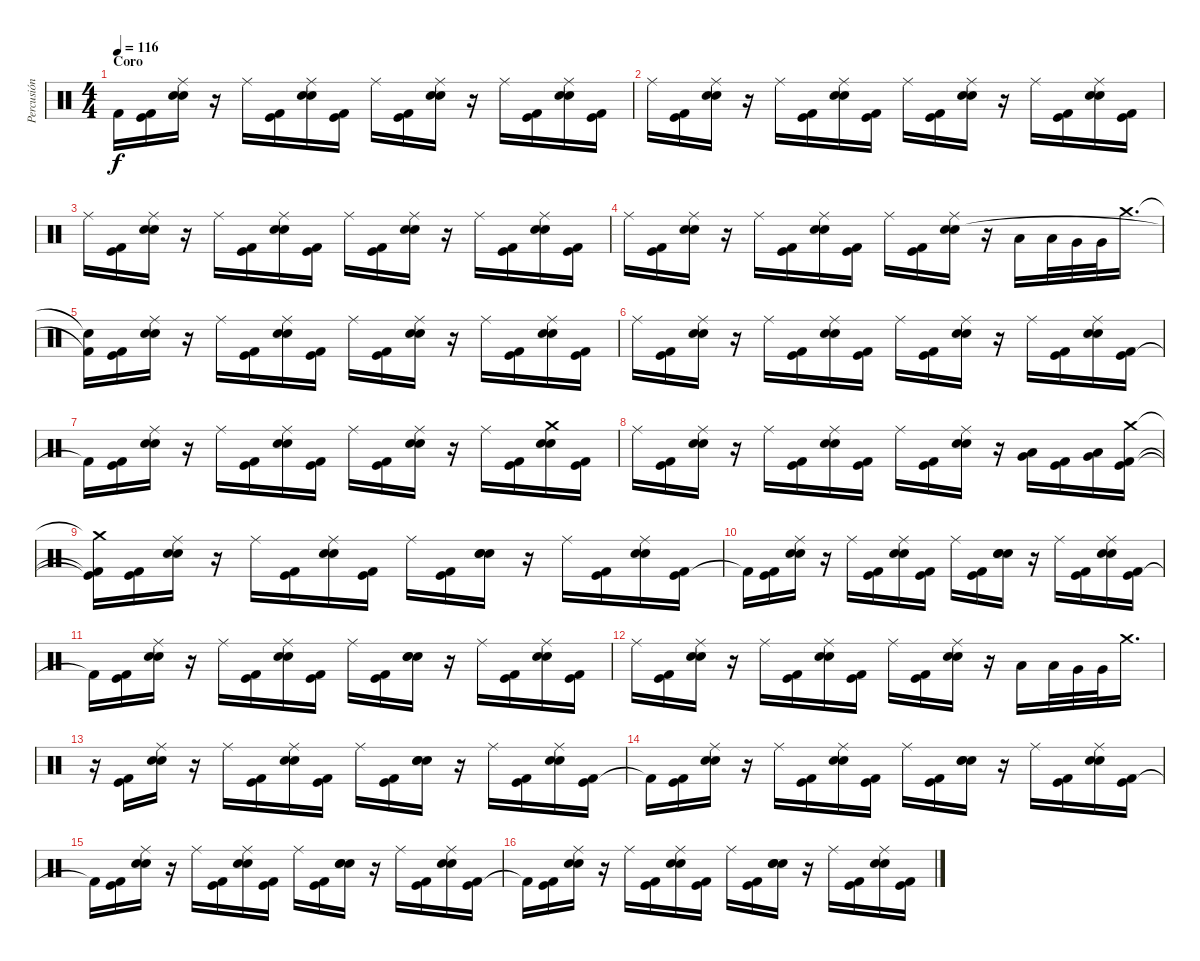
\track ("Percusión" "Percusión") {instrument percussion}
\staff {score}
\articulation defaults
\ts (4 4)
\section ("" "Coro")
\tempo 116
\clef neutral
\ks c "Kick (hit) 2"{t}.16{dy f}
("Kick (hit)" "Kick (hit) 2").16 ("Ride (middle)" "Electric Snare (hit)" "Snare (hit) 2").16 r.16 "Ride (middle)".16 ("Kick (hit)" "Kick (hit) 2").16 ("Ride (middle)" "Electric Snare (hit)" "Snare (hit) 2").16 ("Kick (hit)" "Kick (hit) 2").16 "Ride (middle)".16 ("Kick (hit)" "Kick (hit) 2").16 ("Ride (middle)" "Electric Snare (hit)" "Snare (hit) 2").16 r.16 "Ride (middle)".16 ("Kick (hit)" "Kick (hit) 2").16 ("Ride (middle)" "Electric Snare (hit)" "Snare (hit) 2").16 ("Kick (hit)" "Kick (hit) 2").16 |
"Ride (middle)".16 ("Kick (hit)" "Kick (hit) 2").16 ("Ride (middle)" "Electric Snare (hit)" "Snare (hit) 2").16 r.16 "Ride (middle)".16 ("Kick (hit)" "Kick (hit) 2").16 ("Ride (middle)" "Electric Snare (hit)" "Snare (hit) 2").16 ("Kick (hit)" "Kick (hit) 2").16 "Ride (middle)".16 ("Kick (hit)" "Kick (hit) 2").16 ("Ride (middle)" "Electric Snare (hit)" "Snare (hit) 2").16 r.16 "Ride (middle)".16 ("Kick (hit)" "Kick (hit) 2").16 ("Ride (middle)" "Electric Snare (hit)" "Snare (hit) 2").16 ("Kick (hit)" "Kick (hit) 2").16 |
"Ride (middle)".16 ("Kick (hit)" "Kick (hit) 2").16 ("Ride (middle)" "Electric Snare (hit)" "Snare (hit) 2").16 r.16 "Ride (middle)".16 ("Kick (hit)" "Kick (hit) 2").16 ("Ride (middle)" "Electric Snare (hit)" "Snare (hit) 2").16 ("Kick (hit)" "Kick (hit) 2").16 "Ride (middle)".16 ("Kick (hit)" "Kick (hit) 2").16 ("Ride (middle)" "Electric Snare (hit)" "Snare (hit) 2").16 r.16 "Ride (middle)".16 ("Kick (hit)" "Kick (hit) 2").16 ("Ride (middle)" "Electric Snare (hit)" "Snare (hit) 2").16 ("Kick (hit)" "Kick (hit) 2").16 |
"Ride (middle)".16 ("Kick (hit)" "Kick (hit) 2").16 ("Ride (middle)" "Electric Snare (hit)" "Snare (hit) 2").16 r.16 "Ride (middle)".16 ("Kick (hit)" "Kick (hit) 2").16 ("Ride (middle)" "Electric Snare (hit)" "Snare (hit) 2").16 ("Kick (hit)" "Kick (hit) 2").16 "Ride (middle)".16 ("Kick (hit)" "Kick (hit) 2").16 ("Ride (middle)" "Electric Snare (hit)" "Snare (hit) 2").16 r.16 "Low Tom (hit)".16 "Low Tom (hit)".32 "Very Low Tom (hit)".32 "Very Low Tom (hit)".32 "Crash medium (hit)".16{d} |
("Snare (hit)"{t} "Kick (hit) 2"{t}).16 ("Kick (hit)" "Kick (hit) 2").16 ("Ride (middle)" "Electric Snare (hit)" "Snare (hit) 2").16 r.16 "Ride (middle)".16 ("Kick (hit)" "Kick (hit) 2").16 ("Ride (middle)" "Electric Snare (hit)" "Snare (hit) 2").16 ("Kick (hit)" "Kick (hit) 2").16 "Ride (middle)".16 ("Kick (hit)" "Kick (hit) 2").16 ("Ride (middle)" "Electric Snare (hit)" "Snare (hit) 2").16 r.16 "Ride (middle)".16 ("Kick (hit)" "Kick (hit) 2").16 ("Ride (middle)" "Electric Snare (hit)" "Snare (hit) 2").16 ("Kick (hit)" "Kick (hit) 2").16 |
"Ride (middle)".16 ("Kick (hit)" "Kick (hit) 2").16 ("Ride (middle)" "Electric Snare (hit)" "Snare (hit) 2").16 r.16 "Ride (middle)".16 ("Kick (hit)" "Kick (hit) 2").16 ("Ride (middle)" "Electric Snare (hit)" "Snare (hit) 2").16 ("Kick (hit)" "Kick (hit) 2").16 "Ride (middle)".16 ("Kick (hit)" "Kick (hit) 2").16 ("Ride (middle)" "Electric Snare (hit)" "Snare (hit) 2").16 r.16 "Ride (middle)".16 ("Kick (hit)" "Kick (hit) 2").16 ("Ride (middle)" "Electric Snare (hit)" "Snare (hit) 2").16 ("Kick (hit)" "Kick (hit) 2").16 |
"Kick (hit) 2"{t}.16 ("Kick (hit)" "Kick (hit) 2").16 ("Ride (middle)" "Electric Snare (hit)" "Snare (hit) 2").16 r.16 "Ride (middle)".16 ("Kick (hit)" "Kick (hit) 2").16 ("Ride (middle)" "Electric Snare (hit)" "Snare (hit) 2").16 ("Kick (hit)" "Kick (hit) 2").16 "Ride (middle)".16 ("Kick (hit)" "Kick (hit) 2").16 ("Ride (middle)" "Electric Snare (hit)" "Snare (hit) 2").16 r.16 "Ride (middle)".16 ("Kick (hit)" "Kick (hit) 2").16 ("Crash medium (hit)" "Electric Snare (hit)" "Snare (hit) 2").16 ("Kick (hit)" "Kick (hit) 2").16 |
"Ride (middle)".16 ("Kick (hit)" "Kick (hit) 2").16 ("Ride (middle)" "Electric Snare (hit)" "Snare (hit) 2").16 r.16 "Ride (middle)".16 ("Kick (hit)" "Kick (hit) 2").16 ("Ride (middle)" "Electric Snare (hit)" "Snare (hit) 2").16 ("Kick (hit)" "Kick (hit) 2").16 "Ride (middle)".16 ("Kick (hit)" "Kick (hit) 2").16 ("Ride (middle)" "Electric Snare (hit)" "Snare (hit) 2").16 r.16 ("Low Tom (hit)" "Very Low Tom (hit)").16 ("Kick (hit)" "Kick (hit) 2").16 ("Low Tom (hit)" "Very Low Tom (hit)").16 ("Crash medium (hit)" "Kick (hit)" "Kick (hit) 2").16 |
("Crash medium (hit)"{t} "Kick (hit)"{t} "Kick (hit) 2"{t}).16 ("Kick (hit)" "Kick (hit) 2").16 ("Ride (middle)" "Electric Snare (hit)" "Snare (hit) 2").16 r.16 "Ride (middle)".16 ("Kick (hit)" "Kick (hit) 2").16 ("Ride (middle)" "Electric Snare (hit)" "Snare (hit) 2").16 ("Kick (hit)" "Kick (hit) 2").16 "Ride (middle)".16 ("Kick (hit)" "Kick (hit) 2").16 ("Snare (hit) 2" "Electric Snare (hit)" "Snare (hit) 2").16 r.16 "Ride (middle)".16 ("Kick (hit)" "Kick (hit) 2").16 ("Ride (middle)" "Electric Snare (hit)" "Snare (hit) 2").16 ("Kick (hit)" "Kick (hit) 2").16 |
"Kick (hit) 2"{t}.16 ("Kick (hit)" "Kick (hit) 2").16 ("Ride (middle)" "Electric Snare (hit)" "Snare (hit) 2").16 r.16 "Ride (middle)".16 ("Kick (hit)" "Kick (hit) 2").16 ("Ride (middle)" "Electric Snare (hit)" "Snare (hit) 2").16 ("Kick (hit)" "Kick (hit) 2").16 "Ride (middle)".16 ("Kick (hit)" "Kick (hit) 2").16 ("Snare (hit) 2" "Electric Snare (hit)" "Snare (hit) 2").16 r.16 "Ride (middle)".16 ("Kick (hit)" "Kick (hit) 2").16 ("Ride (middle)" "Electric Snare (hit)" "Snare (hit) 2").16 ("Kick (hit)" "Kick (hit) 2").16 |
"Kick (hit) 2"{t}.16 ("Kick (hit)" "Kick (hit) 2").16 ("Ride (middle)" "Electric Snare (hit)" "Snare (hit) 2").16 r.16 "Ride (middle)".16 ("Kick (hit)" "Kick (hit) 2").16 ("Ride (middle)" "Electric Snare (hit)" "Snare (hit) 2").16 ("Kick (hit)" "Kick (hit) 2").16 "Ride (middle)".16 ("Kick (hit)" "Kick (hit) 2").16 ("Snare (hit) 2" "Electric Snare (hit)" "Snare (hit) 2").16 r.16 "Ride (middle)".16 ("Kick (hit)" "Kick (hit) 2").16 ("Ride (middle)" "Electric Snare (hit)" "Snare (hit) 2").16 ("Kick (hit)" "Kick (hit) 2").16 |
"Ride (middle)".16 ("Kick (hit)" "Kick (hit) 2").16 ("Ride (middle)" "Electric Snare (hit)" "Snare (hit) 2").16 r.16 "Ride (middle)".16 ("Kick (hit)" "Kick (hit) 2").16 ("Ride (middle)" "Electric Snare (hit)" "Snare (hit) 2").16 ("Kick (hit)" "Kick (hit) 2").16 "Ride (middle)".16 ("Kick (hit)" "Kick (hit) 2").16 ("Ride (middle)" "Electric Snare (hit)" "Snare (hit) 2").16 r.16 "Low Tom (hit)".16 "Low Tom (hit)".32 "Very Low Tom (hit)".32 "Very Low Tom (hit)".32 "Crash medium (hit)".16{d} |
r.16 ("Kick (hit)" "Kick (hit) 2").16 ("Ride (middle)" "Electric Snare (hit)" "Snare (hit) 2").16 r.16 "Ride (middle)".16 ("Kick (hit)" "Kick (hit) 2").16 ("Ride (middle)" "Electric Snare (hit)" "Snare (hit) 2").16 ("Kick (hit)" "Kick (hit) 2").16 "Ride (middle)".16 ("Kick (hit)" "Kick (hit) 2").16 ("Snare (hit) 2" "Electric Snare (hit)" "Snare (hit) 2").16 r.16 "Ride (middle)".16 ("Kick (hit)" "Kick (hit) 2").16 ("Ride (middle)" "Electric Snare (hit)" "Snare (hit) 2").16 ("Kick (hit)" "Kick (hit) 2").16 |
"Kick (hit) 2"{t}.16 ("Kick (hit)" "Kick (hit) 2").16 ("Ride (middle)" "Electric Snare (hit)" "Snare (hit) 2").16 r.16 "Ride (middle)".16 ("Kick (hit)" "Kick (hit) 2").16 ("Ride (middle)" "Electric Snare (hit)" "Snare (hit) 2").16 ("Kick (hit)" "Kick (hit) 2").16 "Ride (middle)".16 ("Kick (hit)" "Kick (hit) 2").16 ("Snare (hit) 2" "Electric Snare (hit)" "Snare (hit) 2").16 r.16 "Ride (middle)".16 ("Kick (hit)" "Kick (hit) 2").16 ("Ride (middle)" "Electric Snare (hit)" "Snare (hit) 2").16 ("Kick (hit)" "Kick (hit) 2").16 |
"Kick (hit) 2"{t}.16 ("Kick (hit)" "Kick (hit) 2").16 ("Ride (middle)" "Electric Snare (hit)" "Snare (hit) 2").16 r.16 "Ride (middle)".16 ("Kick (hit)" "Kick (hit) 2").16 ("Ride (middle)" "Electric Snare (hit)" "Snare (hit) 2").16 ("Kick (hit)" "Kick (hit) 2").16 "Ride (middle)".16 ("Kick (hit)" "Kick (hit) 2").16 ("Snare (hit) 2" "Electric Snare (hit)" "Snare (hit) 2").16 r.16 "Ride (middle)".16 ("Kick (hit)" "Kick (hit) 2").16 ("Ride (middle)" "Electric Snare (hit)" "Snare (hit) 2").16 ("Kick (hit)" "Kick (hit) 2").16 |
"Kick (hit) 2"{t}.16 ("Kick (hit)" "Kick (hit) 2").16 ("Ride (middle)" "Electric Snare (hit)" "Snare (hit) 2").16 r.16 "Ride (middle)".16 ("Kick (hit)" "Kick (hit) 2").16 ("Ride (middle)" "Electric Snare (hit)" "Snare (hit) 2").16 ("Kick (hit)" "Kick (hit) 2").16 "Ride (middle)".16 ("Kick (hit)" "Kick (hit) 2").16 ("Snare (hit) 2" "Electric Snare (hit)" "Snare (hit) 2").16 r.16 "Ride (middle)".16 ("Kick (hit)" "Kick (hit) 2").16 ("Ride (middle)" "Electric Snare (hit)" "Snare (hit) 2").16 ("Kick (hit)" "Kick (hit) 2").16
